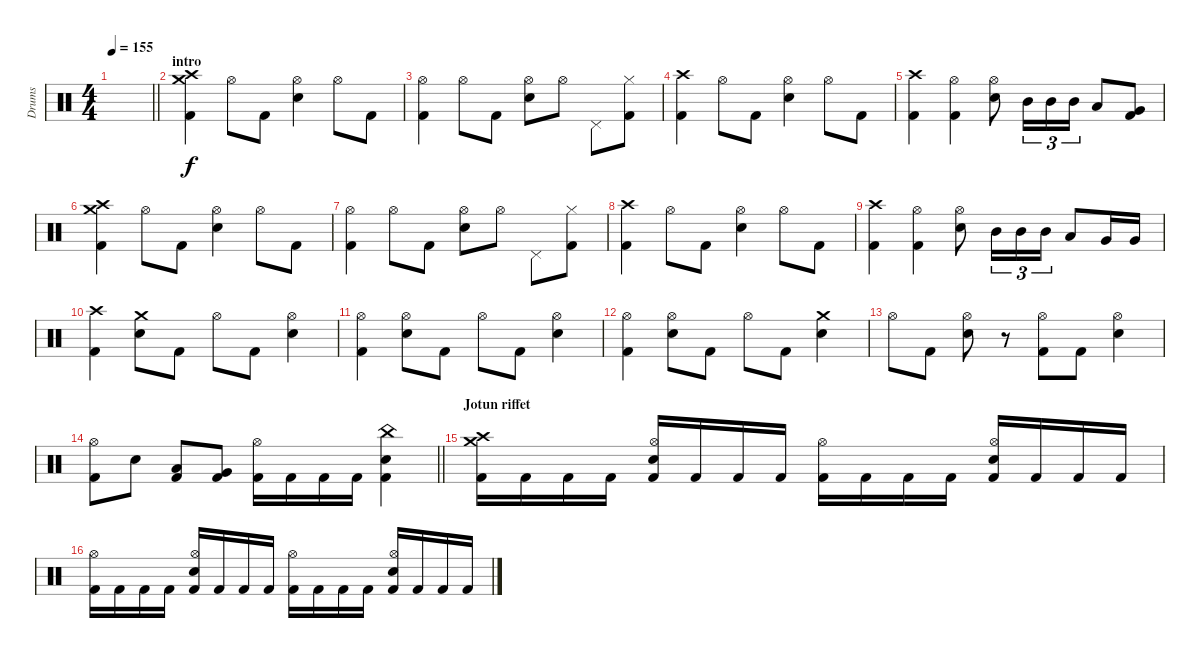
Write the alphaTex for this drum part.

\track ("Drums" "Drums") {instrument percussion}
\staff {score}
\articulation defaults
\ts (4 4)
\tempo 155
\clef neutral
\barLineRight lightlight
\ks c
|
\section ("" "intro")
("Crash high (hit)" "Crash medium (hit)" "Kick (hit) 2").4 "Hi-Hat (open)".8 "Kick (hit) 2".8 ("Snare (hit) 2" "Hi-Hat (open)").4 "Hi-Hat (open)".8 "Kick (hit) 2".8 |
("Hi-Hat (open)" "Kick (hit) 2").4 "Hi-Hat (open)".8 "Kick (hit) 2".8 ("Snare (hit) 2" "Hi-Hat (open)").8 "Hi-Hat (open)".8 "Pedal Hi-Hat (hit)".8 ("Hi-Hat (closed)" "Kick (hit) 2").8 |
("Crash high (hit)" "Kick (hit) 2").4 "Hi-Hat (open)".8 "Kick (hit) 2".8 ("Snare (hit) 2" "Hi-Hat (open)").4 "Hi-Hat (open)".8 "Kick (hit) 2".8 |
("Crash high (hit)" "Kick (hit) 2").4 ("Hi-Hat (open)" "Kick (hit) 2").4 ("Snare (hit) 2" "Hi-Hat (open)").8 "Mid Tom (hit)".16{tu (3 2)} "Mid Tom (hit)".16{tu (3 2)} "Mid Tom (hit)".16{tu (3 2)} "Low Tom (hit)".8 ("Very Low Tom (hit)" "Kick (hit) 2").8 |
("Crash high (hit)" "Crash medium (hit)" "Kick (hit) 2").4 "Hi-Hat (open)".8 "Kick (hit) 2".8 ("Snare (hit) 2" "Hi-Hat (open)").4 "Hi-Hat (open)".8 "Kick (hit) 2".8 |
("Hi-Hat (open)" "Kick (hit) 2").4 "Hi-Hat (open)".8 "Kick (hit) 2".8 ("Snare (hit) 2" "Hi-Hat (open)").8 "Hi-Hat (open)".8 "Pedal Hi-Hat (hit)".8 ("Hi-Hat (closed)" "Kick (hit) 2").8 |
("Crash high (hit)" "Kick (hit) 2").4 "Hi-Hat (open)".8 "Kick (hit) 2".8 ("Snare (hit) 2" "Hi-Hat (open)").4 "Hi-Hat (open)".8 "Kick (hit) 2".8 |
("Crash high (hit)" "Kick (hit) 2").4 ("Hi-Hat (open)" "Kick (hit) 2").4 ("Snare (hit) 2" "Hi-Hat (open)").8 "Mid Tom (hit)".16{tu (3 2)} "Mid Tom (hit)".16{tu (3 2)} "Mid Tom (hit)".16{tu (3 2)} "Low Tom (hit)".8 "Very Low Tom (hit)".16 "Very Low Tom (hit)".16 |
("Crash high (hit)" "Kick (hit) 2").4 ("Crash medium (hit)" "Snare (hit) 2").8 "Kick (hit) 2".8 "Hi-Hat (open)".8 "Kick (hit) 2".8 ("Snare (hit) 2" "Hi-Hat (open)").4 |
("Hi-Hat (open)" "Kick (hit) 2").4 ("Snare (hit) 2" "Hi-Hat (open)").8 "Kick (hit) 2".8 "Hi-Hat (open)".8 "Kick (hit) 2".8 ("Snare (hit) 2" "Hi-Hat (open)").4 |
("Hi-Hat (open)" "Kick (hit) 2").4 ("Snare (hit) 2" "Hi-Hat (open)").8 "Kick (hit) 2".8 "Hi-Hat (open)".8 "Kick (hit) 2".8 ("Crash medium (hit)" "Snare (hit) 2").4 |
"Hi-Hat (open)".8 "Kick (hit) 2".8 ("Snare (hit) 2" "Hi-Hat (open)").8 r.8 ("Hi-Hat (open)" "Kick (hit) 2").8 "Kick (hit) 2".8 ("Snare (hit) 2" "Hi-Hat (open)").4 |
\barLineRight lightlight
("Hi-Hat (open)" "Kick (hit) 2").8 "Snare (hit) 2".8 ("Low Tom (hit)" "Kick (hit) 2").8 ("Very Low Tom (hit)" "Kick (hit) 2").8 ("Hi-Hat (open)" "Kick (hit) 2").16 "Kick (hit) 2".16 "Kick (hit) 2".16 "Kick (hit) 2".16 ("China (hit)" "Snare (hit) 2" "Kick (hit) 2").4 |
\section ("" "Jotun riffet")
("Crash high (hit)" "Crash medium (hit)" "Kick (hit) 2").16 "Kick (hit) 2".16 "Kick (hit) 2".16 "Kick (hit) 2".16 ("Snare (hit) 2" "Hi-Hat (open)" "Kick (hit) 2").16 "Kick (hit) 2".16 "Kick (hit) 2".16 "Kick (hit) 2".16 ("Hi-Hat (open)" "Kick (hit) 2").16 "Kick (hit) 2".16 "Kick (hit) 2".16 "Kick (hit) 2".16 ("Snare (hit) 2" "Hi-Hat (open)" "Kick (hit) 2").16 "Kick (hit) 2".16 "Kick (hit) 2".16 "Kick (hit) 2".16 |
("Hi-Hat (open)" "Kick (hit) 2").16 "Kick (hit) 2".16 "Kick (hit) 2".16 "Kick (hit) 2".16 ("Snare (hit) 2" "Hi-Hat (open)" "Kick (hit) 2").16 "Kick (hit) 2".16 "Kick (hit) 2".16 "Kick (hit) 2".16 ("Hi-Hat (open)" "Kick (hit) 2").16 "Kick (hit) 2".16 "Kick (hit) 2".16 "Kick (hit) 2".16 ("Snare (hit) 2" "Hi-Hat (open)" "Kick (hit) 2").16 "Kick (hit) 2".16 "Kick (hit) 2".16 "Kick (hit) 2".16
